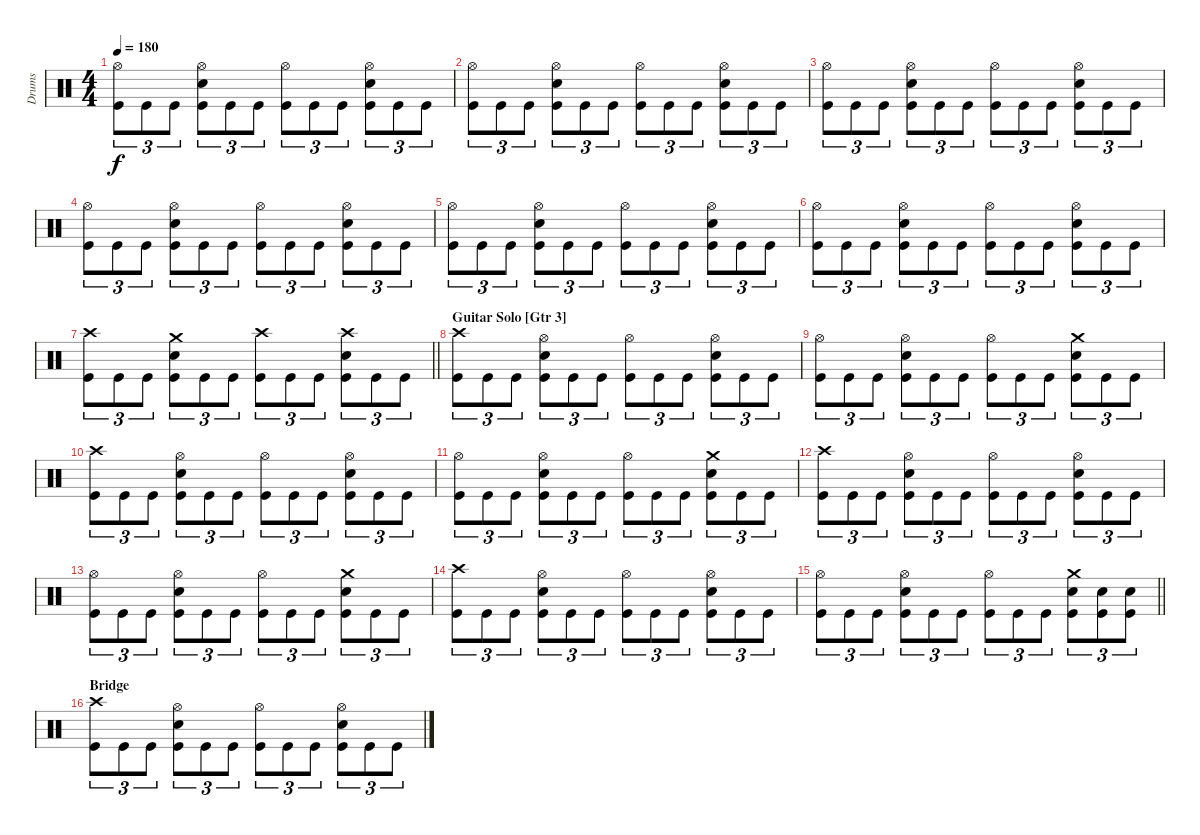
\track ("Drums" "Drums") {instrument percussion}
\staff {score}
\articulation defaults
\ts (4 4)
\tempo 180
\clef neutral
\ks c
("Hi-Hat (open)" "Kick (hit)").8{tu (3 2) dy f} "Kick (hit)".8{tu (3 2)} "Kick (hit)".8{tu (3 2)} ("Hi-Hat (open)" "Electric Snare (hit)" "Kick (hit)").8{tu (3 2)} "Kick (hit)".8{tu (3 2)} "Kick (hit)".8{tu (3 2)} ("Hi-Hat (open)" "Kick (hit)").8{tu (3 2)} "Kick (hit)".8{tu (3 2)} "Kick (hit)".8{tu (3 2)} ("Hi-Hat (open)" "Electric Snare (hit)" "Kick (hit)").8{tu (3 2)} "Kick (hit)".8{tu (3 2)} "Kick (hit)".8{tu (3 2)} |
("Hi-Hat (open)" "Kick (hit)").8{tu (3 2)} "Kick (hit)".8{tu (3 2)} "Kick (hit)".8{tu (3 2)} ("Hi-Hat (open)" "Electric Snare (hit)" "Kick (hit)").8{tu (3 2)} "Kick (hit)".8{tu (3 2)} "Kick (hit)".8{tu (3 2)} ("Hi-Hat (open)" "Kick (hit)").8{tu (3 2)} "Kick (hit)".8{tu (3 2)} "Kick (hit)".8{tu (3 2)} ("Hi-Hat (open)" "Electric Snare (hit)" "Kick (hit)").8{tu (3 2)} "Kick (hit)".8{tu (3 2)} "Kick (hit)".8{tu (3 2)} |
("Hi-Hat (open)" "Kick (hit)").8{tu (3 2)} "Kick (hit)".8{tu (3 2)} "Kick (hit)".8{tu (3 2)} ("Hi-Hat (open)" "Electric Snare (hit)" "Kick (hit)").8{tu (3 2)} "Kick (hit)".8{tu (3 2)} "Kick (hit)".8{tu (3 2)} ("Hi-Hat (open)" "Kick (hit)").8{tu (3 2)} "Kick (hit)".8{tu (3 2)} "Kick (hit)".8{tu (3 2)} ("Hi-Hat (open)" "Electric Snare (hit)" "Kick (hit)").8{tu (3 2)} "Kick (hit)".8{tu (3 2)} "Kick (hit)".8{tu (3 2)} |
("Hi-Hat (open)" "Kick (hit)").8{tu (3 2)} "Kick (hit)".8{tu (3 2)} "Kick (hit)".8{tu (3 2)} ("Hi-Hat (open)" "Electric Snare (hit)" "Kick (hit)").8{tu (3 2)} "Kick (hit)".8{tu (3 2)} "Kick (hit)".8{tu (3 2)} ("Hi-Hat (open)" "Kick (hit)").8{tu (3 2)} "Kick (hit)".8{tu (3 2)} "Kick (hit)".8{tu (3 2)} ("Hi-Hat (open)" "Electric Snare (hit)" "Kick (hit)").8{tu (3 2)} "Kick (hit)".8{tu (3 2)} "Kick (hit)".8{tu (3 2)} |
("Hi-Hat (open)" "Kick (hit)").8{tu (3 2)} "Kick (hit)".8{tu (3 2)} "Kick (hit)".8{tu (3 2)} ("Hi-Hat (open)" "Electric Snare (hit)" "Kick (hit)").8{tu (3 2)} "Kick (hit)".8{tu (3 2)} "Kick (hit)".8{tu (3 2)} ("Hi-Hat (open)" "Kick (hit)").8{tu (3 2)} "Kick (hit)".8{tu (3 2)} "Kick (hit)".8{tu (3 2)} ("Hi-Hat (open)" "Electric Snare (hit)" "Kick (hit)").8{tu (3 2)} "Kick (hit)".8{tu (3 2)} "Kick (hit)".8{tu (3 2)} |
("Hi-Hat (open)" "Kick (hit)").8{tu (3 2)} "Kick (hit)".8{tu (3 2)} "Kick (hit)".8{tu (3 2)} ("Hi-Hat (open)" "Electric Snare (hit)" "Kick (hit)").8{tu (3 2)} "Kick (hit)".8{tu (3 2)} "Kick (hit)".8{tu (3 2)} ("Hi-Hat (open)" "Kick (hit)").8{tu (3 2)} "Kick (hit)".8{tu (3 2)} "Kick (hit)".8{tu (3 2)} ("Hi-Hat (open)" "Electric Snare (hit)" "Kick (hit)").8{tu (3 2)} "Kick (hit)".8{tu (3 2)} "Kick (hit)".8{tu (3 2)} |
\barLineRight lightlight
("Crash high (hit)" "Kick (hit)").8{tu (3 2)} "Kick (hit)".8{tu (3 2)} "Kick (hit)".8{tu (3 2)} ("Crash medium (hit)" "Electric Snare (hit)" "Kick (hit)").8{tu (3 2)} "Kick (hit)".8{tu (3 2)} "Kick (hit)".8{tu (3 2)} ("Crash high (hit)" "Kick (hit)").8{tu (3 2)} "Kick (hit)".8{tu (3 2)} "Kick (hit)".8{tu (3 2)} ("Crash high (hit)" "Electric Snare (hit)" "Kick (hit)").8{tu (3 2)} "Kick (hit)".8{tu (3 2)} "Kick (hit)".8{tu (3 2)} |
\section ("" "Guitar Solo [Gtr 3]")
("Crash high (hit)" "Kick (hit)").8{tu (3 2)} "Kick (hit)".8{tu (3 2)} "Kick (hit)".8{tu (3 2)} ("Hi-Hat (open)" "Electric Snare (hit)" "Kick (hit)").8{tu (3 2)} "Kick (hit)".8{tu (3 2)} "Kick (hit)".8{tu (3 2)} ("Hi-Hat (open)" "Kick (hit)").8{tu (3 2)} "Kick (hit)".8{tu (3 2)} "Kick (hit)".8{tu (3 2)} ("Hi-Hat (open)" "Electric Snare (hit)" "Kick (hit)").8{tu (3 2)} "Kick (hit)".8{tu (3 2)} "Kick (hit)".8{tu (3 2)} |
("Hi-Hat (open)" "Kick (hit)").8{tu (3 2)} "Kick (hit)".8{tu (3 2)} "Kick (hit)".8{tu (3 2)} ("Hi-Hat (open)" "Electric Snare (hit)" "Kick (hit)").8{tu (3 2)} "Kick (hit)".8{tu (3 2)} "Kick (hit)".8{tu (3 2)} ("Hi-Hat (open)" "Kick (hit)").8{tu (3 2)} "Kick (hit)".8{tu (3 2)} "Kick (hit)".8{tu (3 2)} ("Crash medium (hit)" "Electric Snare (hit)" "Kick (hit)").8{tu (3 2)} "Kick (hit)".8{tu (3 2)} "Kick (hit)".8{tu (3 2)} |
("Crash high (hit)" "Kick (hit)").8{tu (3 2)} "Kick (hit)".8{tu (3 2)} "Kick (hit)".8{tu (3 2)} ("Hi-Hat (open)" "Electric Snare (hit)" "Kick (hit)").8{tu (3 2)} "Kick (hit)".8{tu (3 2)} "Kick (hit)".8{tu (3 2)} ("Hi-Hat (open)" "Kick (hit)").8{tu (3 2)} "Kick (hit)".8{tu (3 2)} "Kick (hit)".8{tu (3 2)} ("Hi-Hat (open)" "Electric Snare (hit)" "Kick (hit)").8{tu (3 2)} "Kick (hit)".8{tu (3 2)} "Kick (hit)".8{tu (3 2)} |
("Hi-Hat (open)" "Kick (hit)").8{tu (3 2)} "Kick (hit)".8{tu (3 2)} "Kick (hit)".8{tu (3 2)} ("Hi-Hat (open)" "Electric Snare (hit)" "Kick (hit)").8{tu (3 2)} "Kick (hit)".8{tu (3 2)} "Kick (hit)".8{tu (3 2)} ("Hi-Hat (open)" "Kick (hit)").8{tu (3 2)} "Kick (hit)".8{tu (3 2)} "Kick (hit)".8{tu (3 2)} ("Crash medium (hit)" "Electric Snare (hit)" "Kick (hit)").8{tu (3 2)} "Kick (hit)".8{tu (3 2)} "Kick (hit)".8{tu (3 2)} |
("Crash high (hit)" "Kick (hit)").8{tu (3 2)} "Kick (hit)".8{tu (3 2)} "Kick (hit)".8{tu (3 2)} ("Hi-Hat (open)" "Electric Snare (hit)" "Kick (hit)").8{tu (3 2)} "Kick (hit)".8{tu (3 2)} "Kick (hit)".8{tu (3 2)} ("Hi-Hat (open)" "Kick (hit)").8{tu (3 2)} "Kick (hit)".8{tu (3 2)} "Kick (hit)".8{tu (3 2)} ("Hi-Hat (open)" "Electric Snare (hit)" "Kick (hit)").8{tu (3 2)} "Kick (hit)".8{tu (3 2)} "Kick (hit)".8{tu (3 2)} |
("Hi-Hat (open)" "Kick (hit)").8{tu (3 2)} "Kick (hit)".8{tu (3 2)} "Kick (hit)".8{tu (3 2)} ("Hi-Hat (open)" "Electric Snare (hit)" "Kick (hit)").8{tu (3 2)} "Kick (hit)".8{tu (3 2)} "Kick (hit)".8{tu (3 2)} ("Hi-Hat (open)" "Kick (hit)").8{tu (3 2)} "Kick (hit)".8{tu (3 2)} "Kick (hit)".8{tu (3 2)} ("Crash medium (hit)" "Electric Snare (hit)" "Kick (hit)").8{tu (3 2)} "Kick (hit)".8{tu (3 2)} "Kick (hit)".8{tu (3 2)} |
("Crash high (hit)" "Kick (hit)").8{tu (3 2)} "Kick (hit)".8{tu (3 2)} "Kick (hit)".8{tu (3 2)} ("Hi-Hat (open)" "Electric Snare (hit)" "Kick (hit)").8{tu (3 2)} "Kick (hit)".8{tu (3 2)} "Kick (hit)".8{tu (3 2)} ("Hi-Hat (open)" "Kick (hit)").8{tu (3 2)} "Kick (hit)".8{tu (3 2)} "Kick (hit)".8{tu (3 2)} ("Hi-Hat (open)" "Electric Snare (hit)" "Kick (hit)").8{tu (3 2)} "Kick (hit)".8{tu (3 2)} "Kick (hit)".8{tu (3 2)} |
\barLineRight lightlight
("Hi-Hat (open)" "Kick (hit)").8{tu (3 2)} "Kick (hit)".8{tu (3 2)} "Kick (hit)".8{tu (3 2)} ("Hi-Hat (open)" "Electric Snare (hit)" "Kick (hit)").8{tu (3 2)} "Kick (hit)".8{tu (3 2)} "Kick (hit)".8{tu (3 2)} ("Hi-Hat (open)" "Kick (hit)").8{tu (3 2)} "Kick (hit)".8{tu (3 2)} "Kick (hit)".8{tu (3 2)} ("Crash medium (hit)" "Electric Snare (hit)" "Kick (hit)").8{tu (3 2)} ("Electric Snare (hit)" "Kick (hit)").8{tu (3 2)} ("Electric Snare (hit)" "Kick (hit)").8{tu (3 2)} |
\section ("" "Bridge")
("Crash high (hit)" "Kick (hit)").8{tu (3 2)} "Kick (hit)".8{tu (3 2)} "Kick (hit)".8{tu (3 2)} ("Hi-Hat (open)" "Electric Snare (hit)" "Kick (hit)").8{tu (3 2)} "Kick (hit)".8{tu (3 2)} "Kick (hit)".8{tu (3 2)} ("Hi-Hat (open)" "Kick (hit)").8{tu (3 2)} "Kick (hit)".8{tu (3 2)} "Kick (hit)".8{tu (3 2)} ("Hi-Hat (open)" "Electric Snare (hit)" "Kick (hit)").8{tu (3 2)} "Kick (hit)".8{tu (3 2)} "Kick (hit)".8{tu (3 2)}
